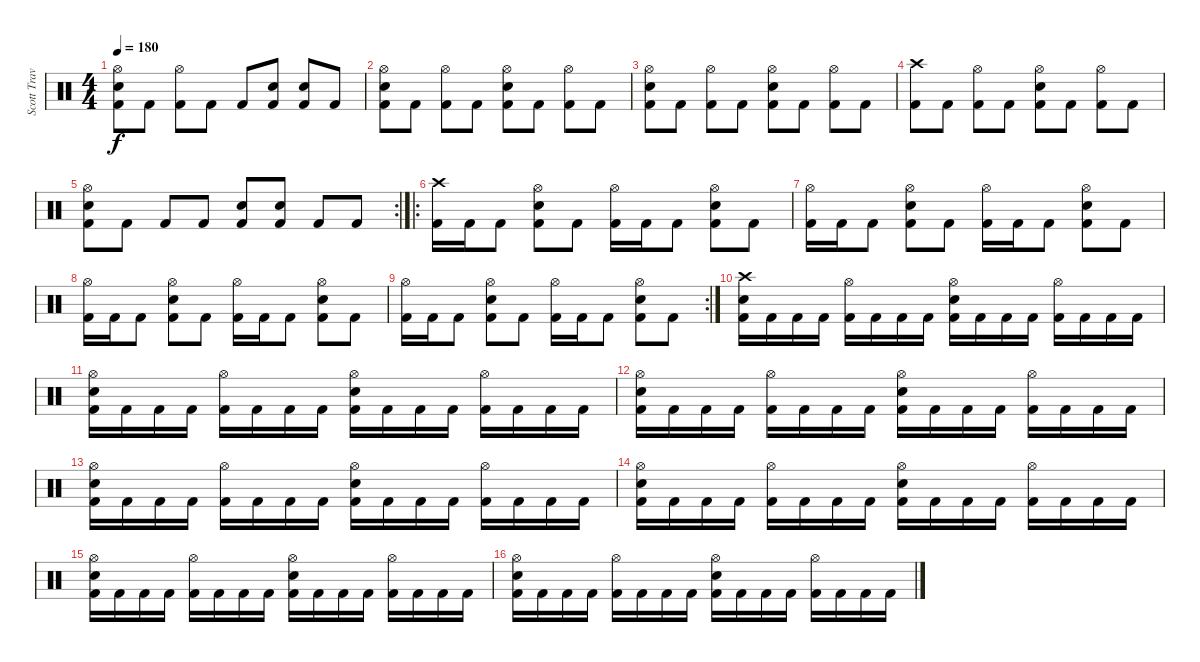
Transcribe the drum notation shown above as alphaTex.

\track ("Scott Travis" "Scott Trav") {instrument percussion}
\staff {score}
\articulation defaults
\ts (4 4)
\tempo 180
\clef neutral
\ks c
("Hi-Hat (open)" "Snare (hit) 2" "Kick (hit) 2").8{dy f} "Kick (hit) 2".8 ("Hi-Hat (open)" "Kick (hit) 2").8 "Kick (hit) 2".8 "Kick (hit) 2".8 ("Snare (hit) 2" "Kick (hit) 2").8 ("Snare (hit) 2" "Kick (hit) 2").8 "Kick (hit) 2".8 |
("Hi-Hat (open)" "Snare (hit) 2" "Kick (hit) 2").8 "Kick (hit) 2".8 ("Hi-Hat (open)" "Kick (hit) 2").8 "Kick (hit) 2".8 ("Hi-Hat (open)" "Snare (hit) 2" "Kick (hit) 2").8 "Kick (hit) 2".8 ("Hi-Hat (open)" "Kick (hit) 2").8 "Kick (hit) 2".8 |
("Hi-Hat (open)" "Snare (hit) 2" "Kick (hit) 2").8 "Kick (hit) 2".8 ("Hi-Hat (open)" "Kick (hit) 2").8 "Kick (hit) 2".8 ("Hi-Hat (open)" "Snare (hit) 2" "Kick (hit) 2").8 "Kick (hit) 2".8 ("Hi-Hat (open)" "Kick (hit) 2").8 "Kick (hit) 2".8 |
("Crash high (hit)" "Kick (hit) 2").8 "Kick (hit) 2".8 ("Hi-Hat (open)" "Kick (hit) 2").8 "Kick (hit) 2".8 ("Hi-Hat (open)" "Snare (hit) 2" "Kick (hit) 2").8 "Kick (hit) 2".8 ("Hi-Hat (open)" "Kick (hit) 2").8 "Kick (hit) 2".8 |
\rc 2
("Hi-Hat (open)" "Snare (hit) 2" "Kick (hit) 2").8 "Kick (hit) 2".8 "Kick (hit) 2".8 "Kick (hit) 2".8 ("Snare (hit) 2" "Kick (hit) 2").8 ("Snare (hit) 2" "Kick (hit) 2").8 "Kick (hit) 2".8 "Kick (hit) 2".8 |
\ro
("Crash high (hit)" "Kick (hit) 2").16 "Kick (hit) 2".16 "Kick (hit) 2".8 ("Hi-Hat (open)" "Snare (hit) 2" "Kick (hit) 2").8 "Kick (hit) 2".8 ("Hi-Hat (open)" "Kick (hit) 2").16 "Kick (hit) 2".16 "Kick (hit) 2".8 ("Hi-Hat (open)" "Snare (hit) 2" "Kick (hit) 2").8 "Kick (hit) 2".8 |
("Hi-Hat (open)" "Kick (hit) 2").16 "Kick (hit) 2".16 "Kick (hit) 2".8 ("Hi-Hat (open)" "Snare (hit) 2" "Kick (hit) 2").8 "Kick (hit) 2".8 ("Hi-Hat (open)" "Kick (hit) 2").16 "Kick (hit) 2".16 "Kick (hit) 2".8 ("Hi-Hat (open)" "Snare (hit) 2" "Kick (hit) 2").8 "Kick (hit) 2".8 |
("Hi-Hat (open)" "Kick (hit) 2").16 "Kick (hit) 2".16 "Kick (hit) 2".8 ("Hi-Hat (open)" "Snare (hit) 2" "Kick (hit) 2").8 "Kick (hit) 2".8 ("Hi-Hat (open)" "Kick (hit) 2").16 "Kick (hit) 2".16 "Kick (hit) 2".8 ("Hi-Hat (open)" "Snare (hit) 2" "Kick (hit) 2").8 "Kick (hit) 2".8 |
\rc 2
("Hi-Hat (open)" "Kick (hit) 2").16 "Kick (hit) 2".16 "Kick (hit) 2".8 ("Hi-Hat (open)" "Snare (hit) 2" "Kick (hit) 2").8 "Kick (hit) 2".8 ("Hi-Hat (open)" "Kick (hit) 2").16 "Kick (hit) 2".16 "Kick (hit) 2".8 ("Hi-Hat (open)" "Snare (hit) 2" "Kick (hit) 2").8 "Kick (hit) 2".8 |
("Crash high (hit)" "Snare (hit) 2" "Kick (hit) 2").16 "Kick (hit) 2".16 "Kick (hit) 2".16 "Kick (hit) 2".16 ("Hi-Hat (open)" "Kick (hit) 2").16 "Kick (hit) 2".16 "Kick (hit) 2".16 "Kick (hit) 2".16 ("Hi-Hat (open)" "Snare (hit) 2" "Kick (hit) 2").16 "Kick (hit) 2".16 "Kick (hit) 2".16 "Kick (hit) 2".16 ("Hi-Hat (open)" "Kick (hit) 2").16 "Kick (hit) 2".16 "Kick (hit) 2".16 "Kick (hit) 2".16 |
("Hi-Hat (open)" "Snare (hit) 2" "Kick (hit) 2").16 "Kick (hit) 2".16 "Kick (hit) 2".16 "Kick (hit) 2".16 ("Hi-Hat (open)" "Kick (hit) 2").16 "Kick (hit) 2".16 "Kick (hit) 2".16 "Kick (hit) 2".16 ("Hi-Hat (open)" "Snare (hit) 2" "Kick (hit) 2").16 "Kick (hit) 2".16 "Kick (hit) 2".16 "Kick (hit) 2".16 ("Hi-Hat (open)" "Kick (hit) 2").16 "Kick (hit) 2".16 "Kick (hit) 2".16 "Kick (hit) 2".16 |
("Hi-Hat (open)" "Snare (hit) 2" "Kick (hit) 2").16 "Kick (hit) 2".16 "Kick (hit) 2".16 "Kick (hit) 2".16 ("Hi-Hat (open)" "Kick (hit) 2").16 "Kick (hit) 2".16 "Kick (hit) 2".16 "Kick (hit) 2".16 ("Hi-Hat (open)" "Snare (hit) 2" "Kick (hit) 2").16 "Kick (hit) 2".16 "Kick (hit) 2".16 "Kick (hit) 2".16 ("Hi-Hat (open)" "Kick (hit) 2").16 "Kick (hit) 2".16 "Kick (hit) 2".16 "Kick (hit) 2".16 |
("Hi-Hat (open)" "Snare (hit) 2" "Kick (hit) 2").16 "Kick (hit) 2".16 "Kick (hit) 2".16 "Kick (hit) 2".16 ("Hi-Hat (open)" "Kick (hit) 2").16 "Kick (hit) 2".16 "Kick (hit) 2".16 "Kick (hit) 2".16 ("Hi-Hat (open)" "Snare (hit) 2" "Kick (hit) 2").16 "Kick (hit) 2".16 "Kick (hit) 2".16 "Kick (hit) 2".16 ("Hi-Hat (open)" "Kick (hit) 2").16 "Kick (hit) 2".16 "Kick (hit) 2".16 "Kick (hit) 2".16 |
("Hi-Hat (open)" "Snare (hit) 2" "Kick (hit) 2").16 "Kick (hit) 2".16 "Kick (hit) 2".16 "Kick (hit) 2".16 ("Hi-Hat (open)" "Kick (hit) 2").16 "Kick (hit) 2".16 "Kick (hit) 2".16 "Kick (hit) 2".16 ("Hi-Hat (open)" "Snare (hit) 2" "Kick (hit) 2").16 "Kick (hit) 2".16 "Kick (hit) 2".16 "Kick (hit) 2".16 ("Hi-Hat (open)" "Kick (hit) 2").16 "Kick (hit) 2".16 "Kick (hit) 2".16 "Kick (hit) 2".16 |
("Hi-Hat (open)" "Snare (hit) 2" "Kick (hit) 2").16 "Kick (hit) 2".16 "Kick (hit) 2".16 "Kick (hit) 2".16 ("Hi-Hat (open)" "Kick (hit) 2").16 "Kick (hit) 2".16 "Kick (hit) 2".16 "Kick (hit) 2".16 ("Hi-Hat (open)" "Snare (hit) 2" "Kick (hit) 2").16 "Kick (hit) 2".16 "Kick (hit) 2".16 "Kick (hit) 2".16 ("Hi-Hat (open)" "Kick (hit) 2").16 "Kick (hit) 2".16 "Kick (hit) 2".16 "Kick (hit) 2".16 |
("Hi-Hat (open)" "Snare (hit) 2" "Kick (hit) 2").16 "Kick (hit) 2".16 "Kick (hit) 2".16 "Kick (hit) 2".16 ("Hi-Hat (open)" "Kick (hit) 2").16 "Kick (hit) 2".16 "Kick (hit) 2".16 "Kick (hit) 2".16 ("Hi-Hat (open)" "Snare (hit) 2" "Kick (hit) 2").16 "Kick (hit) 2".16 "Kick (hit) 2".16 "Kick (hit) 2".16 ("Hi-Hat (open)" "Kick (hit) 2").16 "Kick (hit) 2".16 "Kick (hit) 2".16 "Kick (hit) 2".16
